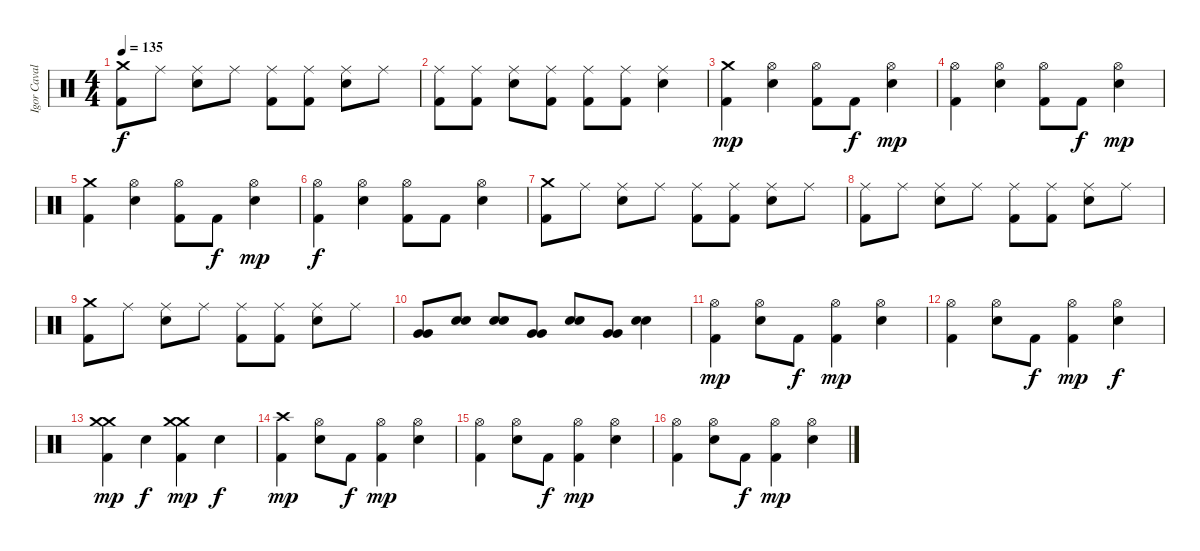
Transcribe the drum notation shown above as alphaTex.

\track ("Igor Cavalera" "Igor Caval") {instrument percussion}
\staff {score}
\articulation defaults
\ts (4 4)
\tempo 135
\clef neutral
\ks c
("Crash medium (hit)" "Kick (hit) 2").8{dy f} "Ride (middle)".8 ("Ride (middle)" "Electric Snare (hit)").8 "Ride (middle)".8 ("Ride (middle)" "Kick (hit) 2").8 ("Ride (middle)" "Kick (hit) 2").8 ("Ride (middle)" "Electric Snare (hit)").8 "Ride (middle)".8 |
("Ride (middle)" "Kick (hit) 2").8 ("Ride (middle)" "Kick (hit) 2").8 ("Ride (middle)" "Electric Snare (hit)").8 ("Ride (middle)" "Kick (hit) 2").8 ("Ride (middle)" "Kick (hit) 2").8 ("Ride (middle)" "Kick (hit) 2").8 ("Ride (middle)" "Electric Snare (hit)").4 |
("Crash medium (hit)" "Kick (hit) 2").4{dy mp} ("Hi-Hat (open)" "Electric Snare (hit)").4 ("Hi-Hat (open)" "Kick (hit) 2").8 "Kick (hit) 2".8{dy f} ("Hi-Hat (open)" "Electric Snare (hit)").4{dy mp} |
("Hi-Hat (open)" "Kick (hit) 2").4 ("Hi-Hat (open)" "Electric Snare (hit)").4 ("Hi-Hat (open)" "Kick (hit) 2").8 "Kick (hit) 2".8{dy f} ("Hi-Hat (open)" "Electric Snare (hit)").4{dy mp} |
("Crash medium (hit)" "Kick (hit) 2").4 ("Hi-Hat (open)" "Electric Snare (hit)").4 ("Hi-Hat (open)" "Kick (hit) 2").8 "Kick (hit) 2".8{dy f} ("Hi-Hat (open)" "Electric Snare (hit)").4{dy mp} |
("Hi-Hat (open)" "Kick (hit) 2").4{dy f} ("Hi-Hat (open)" "Electric Snare (hit)").4 ("Hi-Hat (open)" "Kick (hit) 2").8 "Kick (hit) 2".8 ("Hi-Hat (open)" "Electric Snare (hit)").4 |
("Crash medium (hit)" "Kick (hit) 2").8 "Ride (middle)".8 ("Ride (middle)" "Electric Snare (hit)").8 "Ride (middle)".8 ("Ride (middle)" "Kick (hit) 2").8 ("Ride (middle)" "Kick (hit) 2").8 ("Ride (middle)" "Electric Snare (hit)").8 "Ride (middle)".8 |
("Ride (middle)" "Kick (hit) 2").8 "Ride (middle)".8 ("Ride (middle)" "Electric Snare (hit)").8 "Ride (middle)".8 ("Ride (middle)" "Kick (hit) 2").8 ("Ride (middle)" "Kick (hit) 2").8 ("Ride (middle)" "Electric Snare (hit)").8 "Ride (middle)".8 |
("Crash medium (hit)" "Kick (hit) 2").8 "Ride (middle)".8 ("Ride (middle)" "Electric Snare (hit)").8 "Ride (middle)".8 ("Ride (middle)" "Kick (hit) 2").8 ("Ride (middle)" "Kick (hit) 2").8 ("Ride (middle)" "Electric Snare (hit)").8 "Ride (middle)".8 |
("Very Low Tom (hit)" "Very Low Tom (hit)").8 ("Snare (hit) 2" "Snare (hit) 2").8 ("Snare (hit) 2" "Snare (hit) 2").8 ("Very Low Tom (hit)" "Very Low Tom (hit)").8 ("Snare (hit) 2" "Snare (hit) 2").8 ("Very Low Tom (hit)" "Very Low Tom (hit)").8 ("Snare (hit) 2" "Snare (hit) 2").4 |
("Hi-Hat (open)" "Kick (hit) 2").4{dy mp} ("Hi-Hat (open)" "Electric Snare (hit)").8 "Kick (hit) 2".8{dy f} ("Hi-Hat (open)" "Kick (hit) 2").4{dy mp} ("Hi-Hat (open)" "Electric Snare (hit)").4 |
("Hi-Hat (open)" "Kick (hit) 2").4 ("Hi-Hat (open)" "Electric Snare (hit)").8 "Kick (hit) 2".8{dy f} ("Hi-Hat (open)" "Kick (hit) 2").4{dy mp} ("Hi-Hat (open)" "Snare (hit) 2").4{dy f} |
("Crash medium (hit)" "Crash medium (hit)" "Kick (hit) 2").4{dy mp} "Electric Snare (hit)".4{dy f} ("Crash medium (hit)" "Crash medium (hit)" "Kick (hit) 2").4{dy mp} "Electric Snare (hit)".4{dy f} |
("Crash high (hit)" "Kick (hit) 2").4{dy mp} ("Hi-Hat (open)" "Electric Snare (hit)").8 "Kick (hit) 2".8{dy f} ("Hi-Hat (open)" "Kick (hit) 2").4{dy mp} ("Hi-Hat (open)" "Electric Snare (hit)").4 |
("Hi-Hat (open)" "Kick (hit) 2").4 ("Hi-Hat (open)" "Electric Snare (hit)").8 "Kick (hit) 2".8{dy f} ("Hi-Hat (open)" "Kick (hit) 2").4{dy mp} ("Hi-Hat (open)" "Electric Snare (hit)").4 |
("Hi-Hat (open)" "Kick (hit) 2").4 ("Hi-Hat (open)" "Electric Snare (hit)").8 "Kick (hit) 2".8{dy f} ("Hi-Hat (open)" "Kick (hit) 2").4{dy mp} ("Hi-Hat (open)" "Electric Snare (hit)").4
